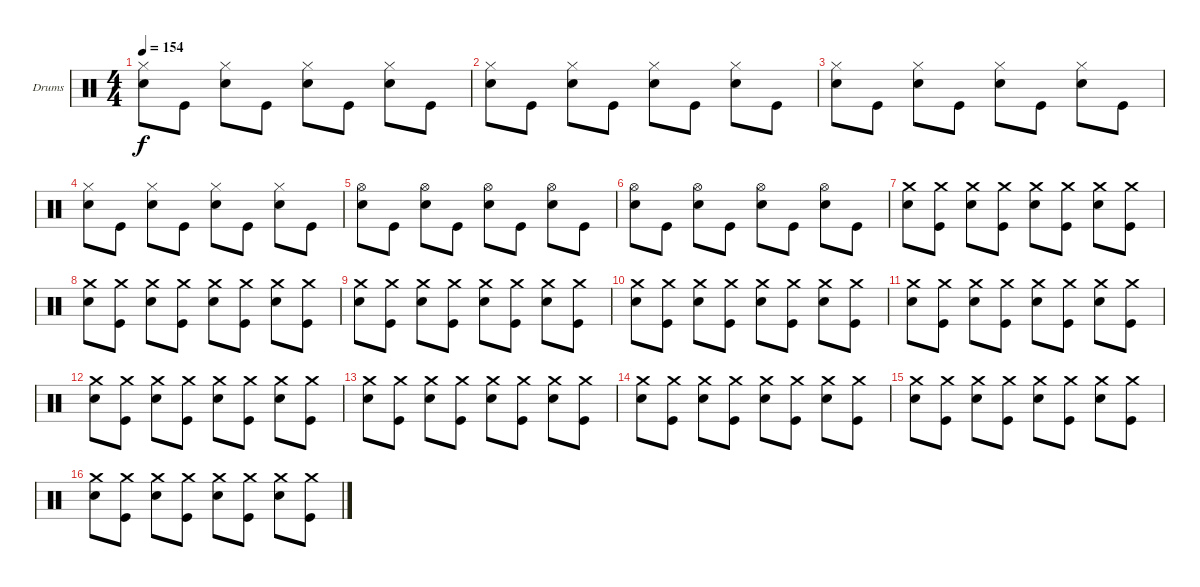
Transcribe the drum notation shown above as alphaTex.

\defaultSystemsLayout 4
\bracketExtendMode groupsimilarinstruments
\firstSystemTrackNameOrientation horizontal
\otherSystemsTrackNameOrientation horizontal
\track ("Drumkit" "Drums") {instrument percussion}
\staff {score}
\articulation defaults
\ts (4 4)
\tempo 154
\clef neutral
\ks c
("Hi-Hat (closed)" "Snare (hit) 2").8{dy f} "Kick (hit)".8 ("Hi-Hat (closed)" "Snare (hit) 2").8 "Kick (hit)".8 ("Hi-Hat (closed)" "Snare (hit) 2").8 "Kick (hit)".8 ("Hi-Hat (closed)" "Snare (hit) 2").8 "Kick (hit)".8 |
("Hi-Hat (closed)" "Snare (hit) 2").8 "Kick (hit)".8 ("Hi-Hat (closed)" "Snare (hit) 2").8 "Kick (hit)".8 ("Hi-Hat (closed)" "Snare (hit) 2").8 "Kick (hit)".8 ("Hi-Hat (closed)" "Snare (hit) 2").8 "Kick (hit)".8 |
("Hi-Hat (closed)" "Snare (hit) 2").8 "Kick (hit)".8 ("Hi-Hat (closed)" "Snare (hit) 2").8 "Kick (hit)".8 ("Hi-Hat (closed)" "Snare (hit) 2").8 "Kick (hit)".8 ("Hi-Hat (closed)" "Snare (hit) 2").8 "Kick (hit)".8 |
("Hi-Hat (closed)" "Snare (hit) 2").8 "Kick (hit)".8 ("Hi-Hat (closed)" "Snare (hit) 2").8 "Kick (hit)".8 ("Hi-Hat (closed)" "Snare (hit) 2").8 "Kick (hit)".8 ("Hi-Hat (closed)" "Snare (hit) 2").8 "Kick (hit)".8 |
("Hi-Hat (open)" "Snare (hit) 2").8 "Kick (hit)".8 ("Hi-Hat (open)" "Snare (hit) 2").8 "Kick (hit)".8 ("Hi-Hat (open)" "Snare (hit) 2").8 "Kick (hit)".8 ("Hi-Hat (open)" "Snare (hit) 2").8 "Kick (hit)".8 |
("Hi-Hat (open)" "Snare (hit) 2").8 "Kick (hit)".8 ("Hi-Hat (open)" "Snare (hit) 2").8 "Kick (hit)".8 ("Hi-Hat (open)" "Snare (hit) 2").8 "Kick (hit)".8 ("Hi-Hat (open)" "Snare (hit) 2").8 "Kick (hit)".8 |
("Crash medium (hit)" "Snare (hit) 2").8 ("Crash medium (hit)" "Kick (hit)").8 ("Crash medium (hit)" "Snare (hit) 2").8 ("Crash medium (hit)" "Kick (hit)").8 ("Crash medium (hit)" "Snare (hit) 2").8 ("Crash medium (hit)" "Kick (hit)").8 ("Crash medium (hit)" "Snare (hit) 2").8 ("Crash medium (hit)" "Kick (hit)").8 |
("Crash medium (hit)" "Snare (hit) 2").8 ("Crash medium (hit)" "Kick (hit)").8 ("Crash medium (hit)" "Snare (hit) 2").8 ("Crash medium (hit)" "Kick (hit)").8 ("Crash medium (hit)" "Snare (hit) 2").8 ("Crash medium (hit)" "Kick (hit)").8 ("Crash medium (hit)" "Snare (hit) 2").8 ("Crash medium (hit)" "Kick (hit)").8 |
("Crash medium (hit)" "Snare (hit) 2").8 ("Crash medium (hit)" "Kick (hit)").8 ("Crash medium (hit)" "Snare (hit) 2").8 ("Crash medium (hit)" "Kick (hit)").8 ("Crash medium (hit)" "Snare (hit) 2").8 ("Crash medium (hit)" "Kick (hit)").8 ("Crash medium (hit)" "Snare (hit) 2").8 ("Crash medium (hit)" "Kick (hit)").8 |
("Crash medium (hit)" "Snare (hit) 2").8 ("Crash medium (hit)" "Kick (hit)").8 ("Crash medium (hit)" "Snare (hit) 2").8 ("Crash medium (hit)" "Kick (hit)").8 ("Crash medium (hit)" "Snare (hit) 2").8 ("Crash medium (hit)" "Kick (hit)").8 ("Crash medium (hit)" "Snare (hit) 2").8 ("Crash medium (hit)" "Kick (hit)").8 |
("Crash medium (hit)" "Snare (hit) 2").8 ("Crash medium (hit)" "Kick (hit)").8 ("Crash medium (hit)" "Snare (hit) 2").8 ("Crash medium (hit)" "Kick (hit)").8 ("Crash medium (hit)" "Snare (hit) 2").8 ("Crash medium (hit)" "Kick (hit)").8 ("Crash medium (hit)" "Snare (hit) 2").8 ("Crash medium (hit)" "Kick (hit)").8 |
("Crash medium (hit)" "Snare (hit) 2").8 ("Crash medium (hit)" "Kick (hit)").8 ("Crash medium (hit)" "Snare (hit) 2").8 ("Crash medium (hit)" "Kick (hit)").8 ("Crash medium (hit)" "Snare (hit) 2").8 ("Crash medium (hit)" "Kick (hit)").8 ("Crash medium (hit)" "Snare (hit) 2").8 ("Crash medium (hit)" "Kick (hit)").8 |
("Crash medium (hit)" "Snare (hit) 2").8 ("Crash medium (hit)" "Kick (hit)").8 ("Crash medium (hit)" "Snare (hit) 2").8 ("Crash medium (hit)" "Kick (hit)").8 ("Crash medium (hit)" "Snare (hit) 2").8 ("Crash medium (hit)" "Kick (hit)").8 ("Crash medium (hit)" "Snare (hit) 2").8 ("Crash medium (hit)" "Kick (hit)").8 |
("Crash medium (hit)" "Snare (hit) 2").8 ("Crash medium (hit)" "Kick (hit)").8 ("Crash medium (hit)" "Snare (hit) 2").8 ("Crash medium (hit)" "Kick (hit)").8 ("Crash medium (hit)" "Snare (hit) 2").8 ("Crash medium (hit)" "Kick (hit)").8 ("Crash medium (hit)" "Snare (hit) 2").8 ("Crash medium (hit)" "Kick (hit)").8 |
("Crash medium (hit)" "Snare (hit) 2").8 ("Crash medium (hit)" "Kick (hit)").8 ("Crash medium (hit)" "Snare (hit) 2").8 ("Crash medium (hit)" "Kick (hit)").8 ("Crash medium (hit)" "Snare (hit) 2").8 ("Crash medium (hit)" "Kick (hit)").8 ("Crash medium (hit)" "Snare (hit) 2").8 ("Crash medium (hit)" "Kick (hit)").8 |
("Crash medium (hit)" "Snare (hit) 2").8 ("Crash medium (hit)" "Kick (hit)").8 ("Crash medium (hit)" "Snare (hit) 2").8 ("Crash medium (hit)" "Kick (hit)").8 ("Crash medium (hit)" "Snare (hit) 2").8 ("Crash medium (hit)" "Kick (hit)").8 ("Crash medium (hit)" "Snare (hit) 2").8 ("Crash medium (hit)" "Kick (hit)").8
